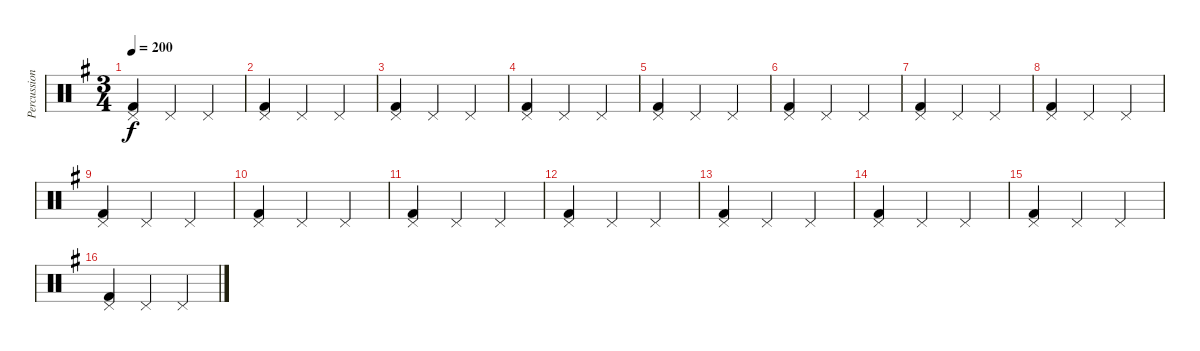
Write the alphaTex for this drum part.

\track ("Percussions" "Percussion") {instrument percussion}
\staff {score}
\articulation defaults
\ts (3 4)
\tempo 200
\clef neutral
\ks g
("Pedal Hi-Hat (hit)" "Kick (hit) 2").4{dy f} "Pedal Hi-Hat (hit)".4 "Pedal Hi-Hat (hit)".4 |
("Pedal Hi-Hat (hit)" "Kick (hit) 2").4 "Pedal Hi-Hat (hit)".4 "Pedal Hi-Hat (hit)".4 |
("Pedal Hi-Hat (hit)" "Kick (hit) 2").4 "Pedal Hi-Hat (hit)".4 "Pedal Hi-Hat (hit)".4 |
("Pedal Hi-Hat (hit)" "Kick (hit) 2").4 "Pedal Hi-Hat (hit)".4 "Pedal Hi-Hat (hit)".4 |
("Pedal Hi-Hat (hit)" "Kick (hit) 2").4 "Pedal Hi-Hat (hit)".4 "Pedal Hi-Hat (hit)".4 |
("Pedal Hi-Hat (hit)" "Kick (hit) 2").4 "Pedal Hi-Hat (hit)".4 "Pedal Hi-Hat (hit)".4 |
("Pedal Hi-Hat (hit)" "Kick (hit) 2").4 "Pedal Hi-Hat (hit)".4 "Pedal Hi-Hat (hit)".4 |
("Pedal Hi-Hat (hit)" "Kick (hit) 2").4 "Pedal Hi-Hat (hit)".4 "Pedal Hi-Hat (hit)".4 |
("Pedal Hi-Hat (hit)" "Kick (hit) 2").4 "Pedal Hi-Hat (hit)".4 "Pedal Hi-Hat (hit)".4 |
("Pedal Hi-Hat (hit)" "Kick (hit) 2").4 "Pedal Hi-Hat (hit)".4 "Pedal Hi-Hat (hit)".4 |
("Pedal Hi-Hat (hit)" "Kick (hit) 2").4 "Pedal Hi-Hat (hit)".4 "Pedal Hi-Hat (hit)".4 |
("Pedal Hi-Hat (hit)" "Kick (hit) 2").4 "Pedal Hi-Hat (hit)".4 "Pedal Hi-Hat (hit)".4 |
("Pedal Hi-Hat (hit)" "Kick (hit) 2").4 "Pedal Hi-Hat (hit)".4 "Pedal Hi-Hat (hit)".4 |
("Pedal Hi-Hat (hit)" "Kick (hit) 2").4 "Pedal Hi-Hat (hit)".4 "Pedal Hi-Hat (hit)".4 |
("Pedal Hi-Hat (hit)" "Kick (hit) 2").4 "Pedal Hi-Hat (hit)".4 "Pedal Hi-Hat (hit)".4 |
("Pedal Hi-Hat (hit)" "Kick (hit) 2").4 "Pedal Hi-Hat (hit)".4 "Pedal Hi-Hat (hit)".4
